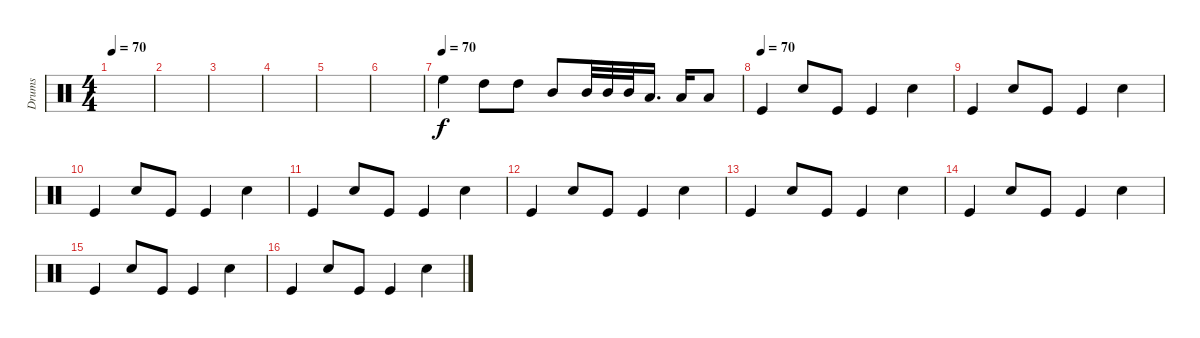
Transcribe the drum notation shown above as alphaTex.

\track ("Drums" "Drums") {instrument percussion}
\staff {score}
\articulation defaults
\ts (4 4)
\tempo 70
\clef neutral
\ks c
|
|
|
|
|
|
\tempo (70)
"High Floor Tom (hit)".4 "High Tom (hit)".8 "High Tom (hit)".8 "Mid Tom (hit)".8 "Mid Tom (hit)".32 "Mid Tom (hit)".32 "Mid Tom (hit)".32 "Low Tom (hit)".16{d} "Low Tom (hit)".16 "Low Floor Tom (hit)".8 |
\tempo (70)
"Kick (hit)".4 "Snare (hit) 2".8 "Kick (hit)".8 "Kick (hit)".4 "Snare (hit) 2".4 |
"Kick (hit)".4 "Snare (hit) 2".8 "Kick (hit)".8 "Kick (hit)".4 "Snare (hit) 2".4 |
"Kick (hit)".4 "Snare (hit) 2".8 "Kick (hit)".8 "Kick (hit)".4 "Snare (hit) 2".4 |
"Kick (hit)".4 "Snare (hit) 2".8 "Kick (hit)".8 "Kick (hit)".4 "Snare (hit) 2".4 |
"Kick (hit)".4 "Snare (hit) 2".8 "Kick (hit)".8 "Kick (hit)".4 "Snare (hit) 2".4 |
"Kick (hit)".4 "Snare (hit) 2".8 "Kick (hit)".8 "Kick (hit)".4 "Snare (hit) 2".4 |
"Kick (hit)".4 "Snare (hit) 2".8 "Kick (hit)".8 "Kick (hit)".4 "Snare (hit) 2".4 |
"Kick (hit)".4 "Snare (hit) 2".8 "Kick (hit)".8 "Kick (hit)".4 "Snare (hit) 2".4 |
"Kick (hit)".4 "Snare (hit) 2".8 "Kick (hit)".8 "Kick (hit)".4 "Snare (hit) 2".4
